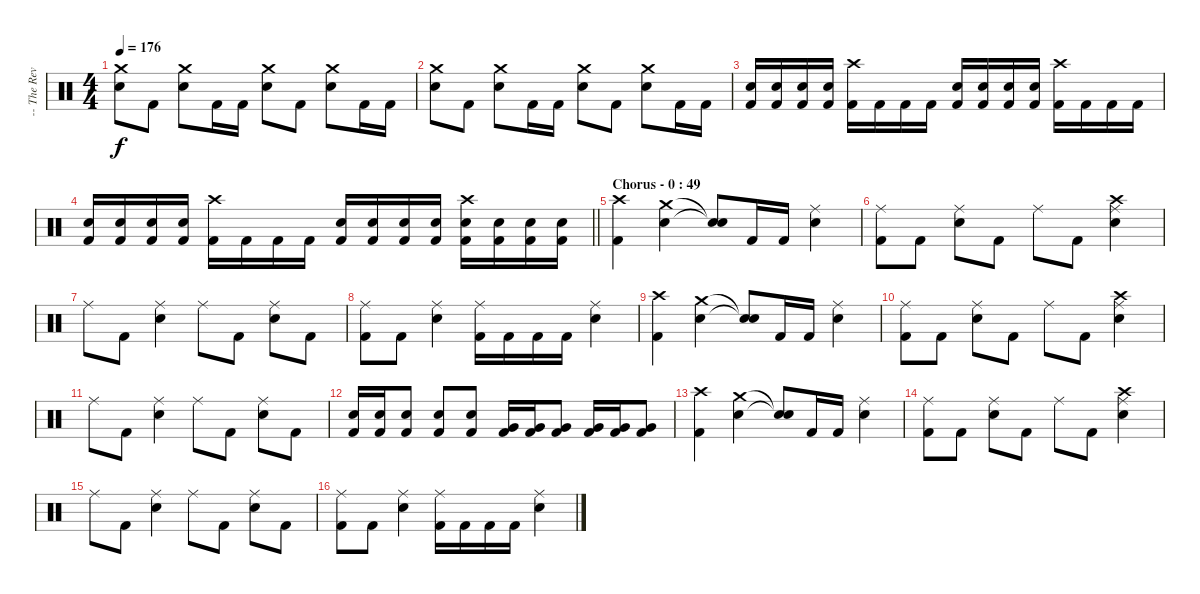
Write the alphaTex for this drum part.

\track ("-- The Reverend - Drums" "-- The Rev") {instrument percussion}
\staff {score}
\articulation defaults
\ts (4 4)
\tempo 176
\clef neutral
\ks c
("Crash medium (hit)" "Electric Snare (hit)").8{dy f} "Kick (hit) 2".8 ("Crash medium (hit)" "Electric Snare (hit)").8 "Kick (hit) 2".16 "Kick (hit) 2".16 ("Crash medium (hit)" "Electric Snare (hit)").8 "Kick (hit) 2".8 ("Crash medium (hit)" "Electric Snare (hit)").8 "Kick (hit) 2".16 "Kick (hit) 2".16 |
("Crash medium (hit)" "Electric Snare (hit)").8 "Kick (hit) 2".8 ("Crash medium (hit)" "Electric Snare (hit)").8 "Kick (hit) 2".16 "Kick (hit) 2".16 ("Crash medium (hit)" "Electric Snare (hit)").8 "Kick (hit) 2".8 ("Crash medium (hit)" "Electric Snare (hit)").8 "Kick (hit) 2".16 "Kick (hit) 2".16 |
("Electric Snare (hit)" "Kick (hit) 2").16 ("Electric Snare (hit)" "Kick (hit) 2").16 ("Electric Snare (hit)" "Kick (hit) 2").16 ("Electric Snare (hit)" "Kick (hit) 2").16 ("Crash high (hit)" "Kick (hit) 2").16 "Kick (hit) 2".16 "Kick (hit) 2".16 "Kick (hit) 2".16 ("Electric Snare (hit)" "Kick (hit) 2").16 ("Electric Snare (hit)" "Kick (hit) 2").16 ("Electric Snare (hit)" "Kick (hit) 2").16 ("Electric Snare (hit)" "Kick (hit) 2").16 ("Crash high (hit)" "Kick (hit) 2").16 "Kick (hit) 2".16 "Kick (hit) 2".16 "Kick (hit) 2".16 |
\barLineRight lightlight
("Electric Snare (hit)" "Kick (hit) 2").16 ("Electric Snare (hit)" "Kick (hit) 2").16 ("Electric Snare (hit)" "Kick (hit) 2").16 ("Electric Snare (hit)" "Kick (hit) 2").16 ("Crash high (hit)" "Kick (hit) 2").16 "Kick (hit) 2".16 "Kick (hit) 2".16 "Kick (hit) 2".16 ("Electric Snare (hit)" "Kick (hit) 2").16 ("Electric Snare (hit)" "Kick (hit) 2").16 ("Electric Snare (hit)" "Kick (hit) 2").16 ("Electric Snare (hit)" "Kick (hit) 2").16 ("Crash high (hit)" "Electric Snare (hit)" "Kick (hit) 2").16 ("Electric Snare (hit)" "Kick (hit) 2").16 ("Electric Snare (hit)" "Kick (hit) 2").16 ("Electric Snare (hit)" "Kick (hit) 2").16 |
\section ("" "Chorus - 0 : 49")
("Crash high (hit)" "Kick (hit) 2").4 ("Crash medium (hit)" "Snare (hit) 2").4 ("Snare (hit)"{t} "Snare (hit)"{t}).8 "Kick (hit) 2".16 "Kick (hit) 2".16 ("Ride (middle)" "Snare (hit) 2").4 |
("Ride (middle)" "Kick (hit) 2").8 "Kick (hit) 2".8 ("Ride (middle)" "Snare (hit) 2").8 "Kick (hit) 2".8 "Ride (middle)".8 "Kick (hit) 2".8 ("Crash high (hit)" "Ride (middle)" "Snare (hit) 2").4 |
"Ride (middle)".8 "Kick (hit) 2".8 ("Ride (middle)" "Snare (hit) 2").4 "Ride (middle)".8 "Kick (hit) 2".8 ("Ride (middle)" "Snare (hit) 2").8 "Kick (hit) 2".8 |
("Ride (middle)" "Kick (hit) 2").8 "Kick (hit) 2".8 ("Ride (middle)" "Snare (hit) 2").4 ("Ride (middle)" "Kick (hit) 2").16 "Kick (hit) 2".16 "Kick (hit) 2".16 "Kick (hit) 2".16 ("Ride (middle)" "Snare (hit) 2").4 |
("Crash high (hit)" "Kick (hit) 2").4 ("Crash medium (hit)" "Snare (hit) 2").4 ("Snare (hit)"{t} "Snare (hit)"{t}).8 "Kick (hit) 2".16 "Kick (hit) 2".16 ("Ride (middle)" "Snare (hit) 2").4 |
("Ride (middle)" "Kick (hit) 2").8 "Kick (hit) 2".8 ("Ride (middle)" "Snare (hit) 2").8 "Kick (hit) 2".8 "Ride (middle)".8 "Kick (hit) 2".8 ("Crash high (hit)" "Ride (middle)" "Snare (hit) 2").4 |
"Ride (middle)".8 "Kick (hit) 2".8 ("Ride (middle)" "Snare (hit) 2").4 "Ride (middle)".8 "Kick (hit) 2".8 ("Ride (middle)" "Snare (hit) 2").8 "Kick (hit) 2".8 |
("Electric Snare (hit)" "Kick (hit) 2").16 ("Electric Snare (hit)" "Kick (hit) 2").16 ("Electric Snare (hit)" "Kick (hit) 2").8 ("Electric Snare (hit)" "Kick (hit) 2").8 ("Electric Snare (hit)" "Kick (hit) 2").8 ("Very Low Tom (hit)" "Kick (hit) 2").16 ("Very Low Tom (hit)" "Kick (hit) 2").16 ("Very Low Tom (hit)" "Kick (hit) 2").8 ("Very Low Tom (hit)" "Kick (hit) 2").16 ("Very Low Tom (hit)" "Kick (hit) 2").16 ("Very Low Tom (hit)" "Kick (hit) 2").8 |
("Crash high (hit)" "Kick (hit) 2").4 ("Crash medium (hit)" "Snare (hit) 2").4 ("Snare (hit)"{t} "Snare (hit)"{t}).8 "Kick (hit) 2".16 "Kick (hit) 2".16 ("Ride (middle)" "Snare (hit) 2").4 |
("Ride (middle)" "Kick (hit) 2").8 "Kick (hit) 2".8 ("Ride (middle)" "Snare (hit) 2").8 "Kick (hit) 2".8 "Ride (middle)".8 "Kick (hit) 2".8 ("Crash high (hit)" "Ride (middle)" "Snare (hit) 2").4 |
"Ride (middle)".8 "Kick (hit) 2".8 ("Ride (middle)" "Snare (hit) 2").4 "Ride (middle)".8 "Kick (hit) 2".8 ("Ride (middle)" "Snare (hit) 2").8 "Kick (hit) 2".8 |
("Ride (middle)" "Kick (hit) 2").8 "Kick (hit) 2".8 ("Ride (middle)" "Snare (hit) 2").4 ("Ride (middle)" "Kick (hit) 2").16 "Kick (hit) 2".16 "Kick (hit) 2".16 "Kick (hit) 2".16 ("Ride (middle)" "Snare (hit) 2").4
